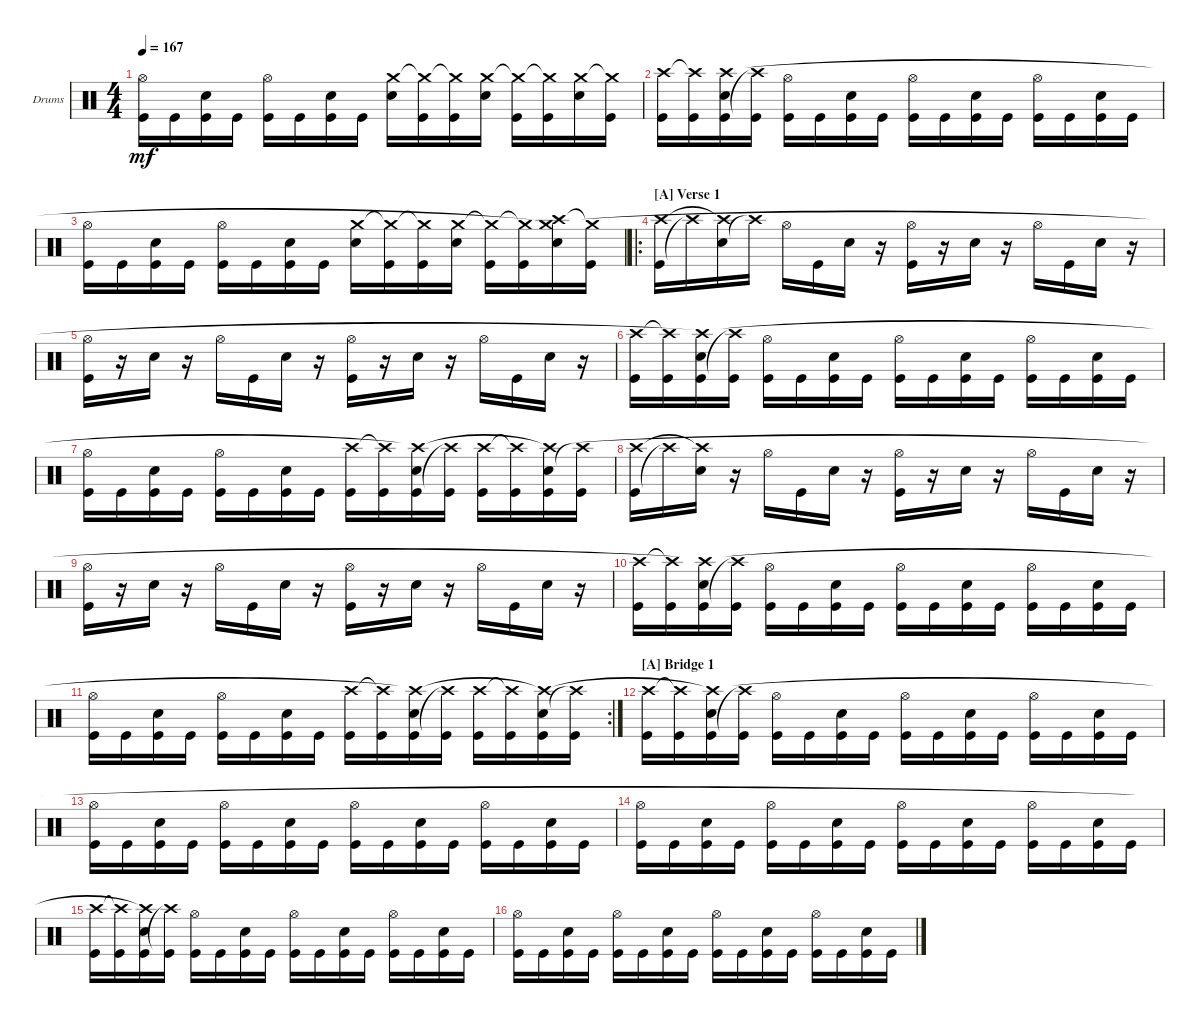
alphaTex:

\defaultSystemsLayout 4
\bracketExtendMode groupsimilarinstruments
\firstSystemTrackNameOrientation horizontal
\otherSystemsTrackNameOrientation horizontal
\track ("Drumkit" "Drums") {instrument percussion}
\staff {score}
\articulation defaults
\ts (4 4)
\tempo 167
\clef neutral
\scale
0.333333
\ks c
("Kick (hit)" "Hi-Hat (open)").16{dy mf} "Kick (hit)".16 ("Snare (hit) 2" "Kick (hit)").16 "Kick (hit)".16 ("Hi-Hat (open)" "Kick (hit)").16 "Kick (hit)".16 ("Kick (hit)" "Snare (hit) 2").16 "Kick (hit)".16 ("Snare (hit) 2" "Crash medium (hit)").16 ("Kick (hit)" "Crash medium (hit)"{t}).16 ("Kick (hit)" "Crash medium (hit)"{t}).16 ("Snare (hit) 2" "Crash medium (hit)").16 ("Kick (hit)" "Crash medium (hit)"{t}).16 ("Kick (hit)" "Crash medium (hit)"{t}).16 ("Snare (hit) 2" "Crash medium (hit)").16 ("Kick (hit)" "Crash medium (hit)"{t}).16 |
\scale
0.315315 ("Kick (hit)" "Crash high (hit)").16 ("Kick (hit)" "Crash high (hit)"{t}).16 ("Snare (hit) 2" "Kick (hit)" "Crash high (hit)"{t}).16 ("Kick (hit)" "Crash high (hit)"{t}).16 ("Hi-Hat (open)" "Kick (hit)").16 "Kick (hit)".16 ("Kick (hit)" "Snare (hit) 2").16 "Kick (hit)".16 ("Kick (hit)" "Hi-Hat (open)").16 "Kick (hit)".16 ("Kick (hit)" "Snare (hit) 2").16 "Kick (hit)".16 ("Kick (hit)" "Hi-Hat (open)").16 "Kick (hit)".16 ("Kick (hit)" "Snare (hit) 2").16 "Kick (hit)".16 |
\scale
0.315315 ("Kick (hit)" "Hi-Hat (open)").16 "Kick (hit)".16 ("Snare (hit) 2" "Kick (hit)").16 "Kick (hit)".16 ("Hi-Hat (open)" "Kick (hit)").16 "Kick (hit)".16 ("Kick (hit)" "Snare (hit) 2").16 "Kick (hit)".16 ("Snare (hit) 2" "Crash medium (hit)").16 ("Kick (hit)" "Crash medium (hit)"{t}).16 ("Kick (hit)" "Crash medium (hit)"{t}).16 ("Snare (hit) 2" "Crash medium (hit)").16 ("Kick (hit)" "Crash medium (hit)"{t}).16 ("Kick (hit)" "Crash medium (hit)"{t}).16 ("Snare (hit) 2" "Crash high (hit)" "Crash medium (hit)"{t}).16 ("Kick (hit)" "Crash medium (hit)"{t}).16 |
\ro
\section ("A" "Verse 1")
\scale
0.369369 ("Kick (hit)" "Crash high (hit)").16 "Crash high (hit)"{t}.16 ("Snare (hit) 2" "Crash high (hit)"{t}).16 "Crash high (hit)"{t}.16 "Hi-Hat (open)".16 "Kick (hit)".16 "Snare (hit) 2".16 r.16 ("Kick (hit)" "Hi-Hat (open)").16 r.16 "Snare (hit) 2".16 r.16 "Hi-Hat (open)".16 "Kick (hit)".16 "Snare (hit) 2".16 r.16 |
\scale
0.333333 ("Kick (hit)" "Hi-Hat (open)").16 r.16 "Snare (hit) 2".16 r.16 "Hi-Hat (open)".16 "Kick (hit)".16 "Snare (hit) 2".16 r.16 ("Kick (hit)" "Hi-Hat (open)").16 r.16 "Snare (hit) 2".16 r.16 "Hi-Hat (open)".16 "Kick (hit)".16 "Snare (hit) 2".16 r.16 |
\scale
0.333333 ("Kick (hit)" "Crash high (hit)").16 ("Kick (hit)" "Crash high (hit)"{t}).16 ("Snare (hit) 2" "Kick (hit)" "Crash high (hit)"{t}).16 ("Kick (hit)" "Crash high (hit)"{t}).16 ("Hi-Hat (open)" "Kick (hit)").16 "Kick (hit)".16 ("Kick (hit)" "Snare (hit) 2").16 "Kick (hit)".16 ("Kick (hit)" "Hi-Hat (open)").16 "Kick (hit)".16 ("Kick (hit)" "Snare (hit) 2").16 "Kick (hit)".16 ("Kick (hit)" "Hi-Hat (open)").16 "Kick (hit)".16 ("Kick (hit)" "Snare (hit) 2").16 "Kick (hit)".16 |
\scale
0.333333 ("Kick (hit)" "Hi-Hat (open)").16 "Kick (hit)".16 ("Snare (hit) 2" "Kick (hit)").16 "Kick (hit)".16 ("Hi-Hat (open)" "Kick (hit)").16 "Kick (hit)".16 ("Kick (hit)" "Snare (hit) 2").16 "Kick (hit)".16 ("Kick (hit)" "Crash high (hit)").16 ("Kick (hit)" "Crash high (hit)"{t}).16 ("Snare (hit) 2" "Kick (hit)" "Crash high (hit)"{t}).16 ("Kick (hit)" "Crash high (hit)"{t}).16 ("Kick (hit)" "Crash high (hit)").16 ("Kick (hit)" "Crash high (hit)"{t}).16 ("Kick (hit)" "Snare (hit) 2" "Crash high (hit)"{t}).16 ("Kick (hit)" "Crash high (hit)"{t}).16 |
\scale
0.333333 ("Kick (hit)" "Crash high (hit)").16 "Crash high (hit)"{t}.16 ("Snare (hit) 2" "Crash high (hit)"{t}).16 r.16 "Hi-Hat (open)".16 "Kick (hit)".16 "Snare (hit) 2".16 r.16 ("Kick (hit)" "Hi-Hat (open)").16 r.16 "Snare (hit) 2".16 r.16 "Hi-Hat (open)".16 "Kick (hit)".16 "Snare (hit) 2".16 r.16 |
\scale
0.333333 ("Kick (hit)" "Hi-Hat (open)").16 r.16 "Snare (hit) 2".16 r.16 "Hi-Hat (open)".16 "Kick (hit)".16 "Snare (hit) 2".16 r.16 ("Kick (hit)" "Hi-Hat (open)").16 r.16 "Snare (hit) 2".16 r.16 "Hi-Hat (open)".16 "Kick (hit)".16 "Snare (hit) 2".16 r.16 |
\scale
0.333333 ("Kick (hit)" "Crash high (hit)").16 ("Kick (hit)" "Crash high (hit)"{t}).16 ("Snare (hit) 2" "Kick (hit)" "Crash high (hit)"{t}).16 ("Kick (hit)" "Crash high (hit)"{t}).16 ("Hi-Hat (open)" "Kick (hit)").16 "Kick (hit)".16 ("Kick (hit)" "Snare (hit) 2").16 "Kick (hit)".16 ("Kick (hit)" "Hi-Hat (open)").16 "Kick (hit)".16 ("Kick (hit)" "Snare (hit) 2").16 "Kick (hit)".16 ("Kick (hit)" "Hi-Hat (open)").16 "Kick (hit)".16 ("Kick (hit)" "Snare (hit) 2").16 "Kick (hit)".16 |
\rc 2
\scale
0.351852 ("Kick (hit)" "Hi-Hat (open)").16 "Kick (hit)".16 ("Snare (hit) 2" "Kick (hit)").16 "Kick (hit)".16 ("Hi-Hat (open)" "Kick (hit)").16 "Kick (hit)".16 ("Kick (hit)" "Snare (hit) 2").16 "Kick (hit)".16 ("Kick (hit)" "Crash high (hit)").16 ("Kick (hit)" "Crash high (hit)"{t}).16 ("Snare (hit) 2" "Kick (hit)" "Crash high (hit)"{t}).16 ("Kick (hit)" "Crash high (hit)"{t}).16 ("Kick (hit)" "Crash high (hit)").16 ("Kick (hit)" "Crash high (hit)"{t}).16 ("Kick (hit)" "Snare (hit) 2" "Crash high (hit)"{t}).16 ("Kick (hit)" "Crash high (hit)"{t}).16 |
\section ("A" "Bridge 1")
\scale
0.324074 ("Kick (hit)" "Crash high (hit)").16 ("Kick (hit)" "Crash high (hit)"{t}).16 ("Snare (hit) 2" "Kick (hit)" "Crash high (hit)"{t}).16 ("Kick (hit)" "Crash high (hit)"{t}).16 ("Hi-Hat (open)" "Kick (hit)").16 "Kick (hit)".16 ("Kick (hit)" "Snare (hit) 2").16 "Kick (hit)".16 ("Kick (hit)" "Hi-Hat (open)").16 "Kick (hit)".16 ("Kick (hit)" "Snare (hit) 2").16 "Kick (hit)".16 ("Kick (hit)" "Hi-Hat (open)").16 "Kick (hit)".16 ("Kick (hit)" "Snare (hit) 2").16 "Kick (hit)".16 |
\scale
0.324074 ("Kick (hit)" "Hi-Hat (open)").16 "Kick (hit)".16 ("Snare (hit) 2" "Kick (hit)").16 "Kick (hit)".16 ("Hi-Hat (open)" "Kick (hit)").16 "Kick (hit)".16 ("Kick (hit)" "Snare (hit) 2").16 "Kick (hit)".16 ("Kick (hit)" "Hi-Hat (open)").16 "Kick (hit)".16 ("Kick (hit)" "Snare (hit) 2").16 "Kick (hit)".16 ("Kick (hit)" "Hi-Hat (open)").16 "Kick (hit)".16 ("Kick (hit)" "Snare (hit) 2").16 "Kick (hit)".16 |
\scale
0.333333 ("Kick (hit)" "Hi-Hat (open)").16 "Kick (hit)".16 ("Snare (hit) 2" "Kick (hit)").16 "Kick (hit)".16 ("Hi-Hat (open)" "Kick (hit)").16 "Kick (hit)".16 ("Kick (hit)" "Snare (hit) 2").16 "Kick (hit)".16 ("Kick (hit)" "Hi-Hat (open)").16 "Kick (hit)".16 ("Kick (hit)" "Snare (hit) 2").16 "Kick (hit)".16 ("Kick (hit)" "Hi-Hat (open)").16 "Kick (hit)".16 ("Kick (hit)" "Snare (hit) 2").16 "Kick (hit)".16 |
\scale
0.333333 ("Kick (hit)" "Crash high (hit)").16 ("Kick (hit)" "Crash high (hit)"{t}).16 ("Snare (hit) 2" "Kick (hit)" "Crash high (hit)"{t}).16 ("Kick (hit)" "Crash high (hit)"{t}).16 ("Hi-Hat (open)" "Kick (hit)").16 "Kick (hit)".16 ("Kick (hit)" "Snare (hit) 2").16 "Kick (hit)".16 ("Kick (hit)" "Hi-Hat (open)").16 "Kick (hit)".16 ("Kick (hit)" "Snare (hit) 2").16 "Kick (hit)".16 ("Kick (hit)" "Hi-Hat (open)").16 "Kick (hit)".16 ("Kick (hit)" "Snare (hit) 2").16 "Kick (hit)".16 |
("Kick (hit)" "Hi-Hat (open)").16 "Kick (hit)".16 ("Snare (hit) 2" "Kick (hit)").16 "Kick (hit)".16 ("Hi-Hat (open)" "Kick (hit)").16 "Kick (hit)".16 ("Kick (hit)" "Snare (hit) 2").16 "Kick (hit)".16 ("Kick (hit)" "Hi-Hat (open)").16 "Kick (hit)".16 ("Kick (hit)" "Snare (hit) 2").16 "Kick (hit)".16 ("Kick (hit)" "Hi-Hat (open)").16 "Kick (hit)".16 ("Kick (hit)" "Snare (hit) 2").16 "Kick (hit)".16
